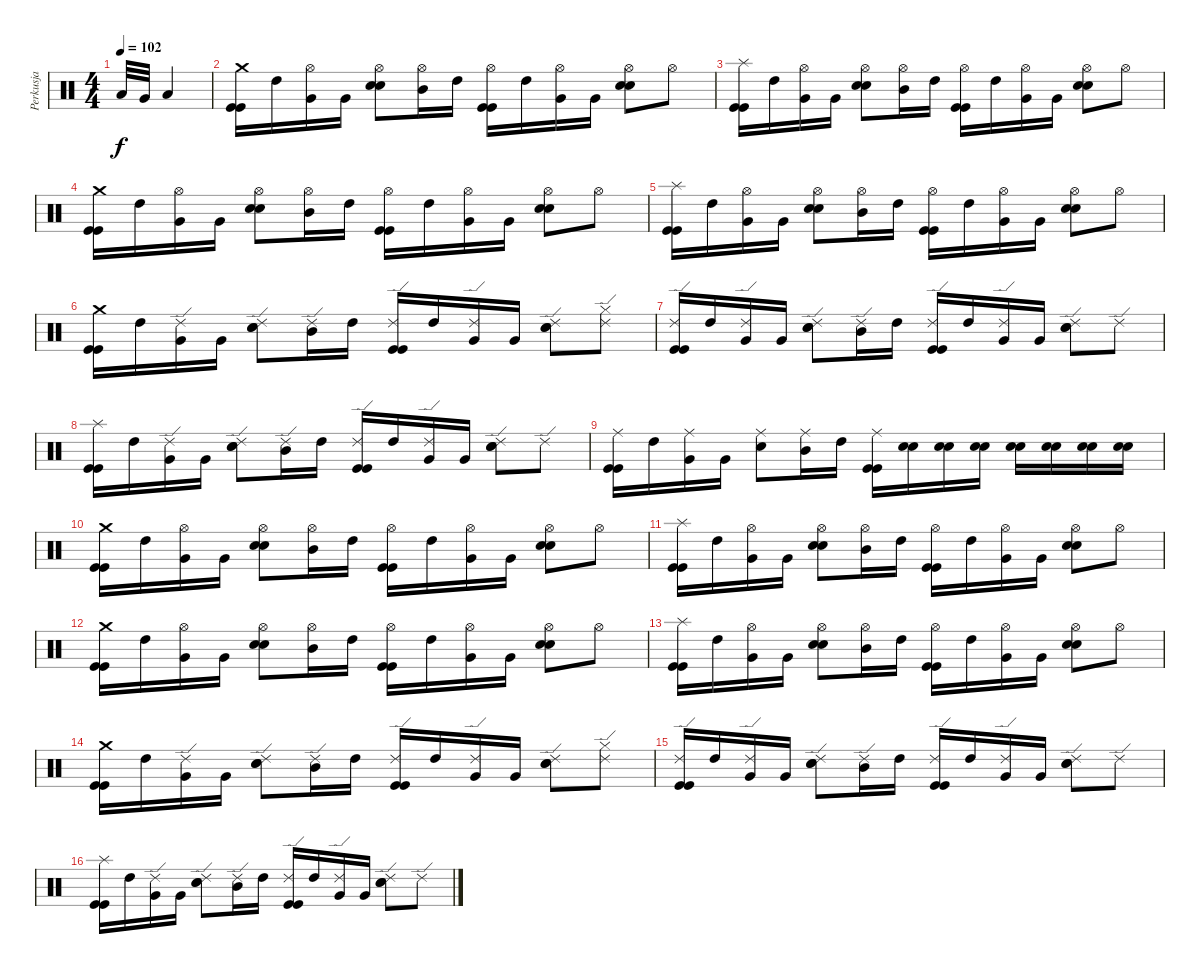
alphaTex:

\track ("Perkusja" "Perkusja") {instrument percussion}
\staff {score}
\articulation defaults
\ts (4 4)
\tempo 102
\clef neutral
\ks c "Low Tom (hit)".32{dy f} "Very Low Tom (hit)".32 "Low Floor Tom (hit)".4
|
("Kick (hit)" "Kick (hit)" "Crash medium (hit)").16 "High Tom (hit)".16 ("Very Low Tom (hit)" "Hi-Hat (open)").16 "Very Low Tom (hit)".16 ("Electric Snare (hit)" "Electric Snare (hit)" "Hi-Hat (open)").8 ("Mid Tom (hit)" "Hi-Hat (open)").16 "High Tom (hit)".16 ("Kick (hit)" "Kick (hit)" "Hi-Hat (open)").16 "High Tom (hit)".16 ("Very Low Tom (hit)" "Hi-Hat (open)").16 "Very Low Tom (hit)".16 ("Electric Snare (hit)" "Electric Snare (hit)" "Hi-Hat (open)").8 "Hi-Hat (open)".8 |
("Kick (hit)" "Kick (hit)" "Splash (hit)").16 "High Tom (hit)".16 ("Very Low Tom (hit)" "Hi-Hat (open)").16 "Very Low Tom (hit)".16 ("Electric Snare (hit)" "Electric Snare (hit)" "Hi-Hat (open)").8 ("Mid Tom (hit)" "Hi-Hat (open)").16 "High Tom (hit)".16 ("Kick (hit)" "Kick (hit)" "Hi-Hat (open)").16 "High Tom (hit)".16 ("Very Low Tom (hit)" "Hi-Hat (open)").16 "Very Low Tom (hit)".16 ("Electric Snare (hit)" "Electric Snare (hit)" "Hi-Hat (open)").8 "Hi-Hat (open)".8 |
("Kick (hit)" "Kick (hit)" "Crash medium (hit)").16 "High Tom (hit)".16 ("Very Low Tom (hit)" "Hi-Hat (open)").16 "Very Low Tom (hit)".16 ("Electric Snare (hit)" "Electric Snare (hit)" "Hi-Hat (open)").8 ("Mid Tom (hit)" "Hi-Hat (open)").16 "High Tom (hit)".16 ("Kick (hit)" "Kick (hit)" "Hi-Hat (open)").16 "High Tom (hit)".16 ("Very Low Tom (hit)" "Hi-Hat (open)").16 "Very Low Tom (hit)".16 ("Electric Snare (hit)" "Electric Snare (hit)" "Hi-Hat (open)").8 "Hi-Hat (open)".8 |
("Kick (hit)" "Kick (hit)" "Splash (hit)").16 "High Tom (hit)".16 ("Very Low Tom (hit)" "Hi-Hat (open)").16 "Very Low Tom (hit)".16 ("Electric Snare (hit)" "Electric Snare (hit)" "Hi-Hat (open)").8 ("Mid Tom (hit)" "Hi-Hat (open)").16 "High Tom (hit)".16 ("Kick (hit)" "Kick (hit)" "Hi-Hat (open)").16 "High Tom (hit)".16 ("Very Low Tom (hit)" "Hi-Hat (open)").16 "Very Low Tom (hit)".16 ("Electric Snare (hit)" "Electric Snare (hit)" "Hi-Hat (open)").8 "Hi-Hat (open)".8 |
("Kick (hit)" "Kick (hit)" "Crash medium (hit)").16 "High Tom (hit)".16 ("Very Low Tom (hit)" "Ride (edge) 2").16 "Very Low Tom (hit)".16 ("Electric Snare (hit)" "Electric Snare (hit)" "Ride (edge) 2").8 ("Mid Tom (hit)" "Ride (edge) 2").16 "High Tom (hit)".16 ("Kick (hit)" "Kick (hit)" "Ride (edge) 2").16 "High Tom (hit)".16 ("Very Low Tom (hit)" "Ride (edge) 2").16 "Very Low Tom (hit)".16 ("Electric Snare (hit)" "Electric Snare (hit)" "Ride (edge) 2").8 ("Hi-Hat (closed)" "Ride (edge) 2").8 |
("Kick (hit)" "Kick (hit)" "Ride (edge) 2").16 "High Tom (hit)".16 ("Very Low Tom (hit)" "Ride (edge) 2").16 "Very Low Tom (hit)".16 ("Electric Snare (hit)" "Electric Snare (hit)" "Ride (edge) 2").8 ("Mid Tom (hit)" "Ride (edge) 2").16 "High Tom (hit)".16 ("Kick (hit)" "Kick (hit)" "Ride (edge) 2").16 "High Tom (hit)".16 ("Very Low Tom (hit)" "Ride (edge) 2").16 "Very Low Tom (hit)".16 ("Electric Snare (hit)" "Electric Snare (hit)" "Ride (edge) 2").8 "Ride (edge) 2".8 |
("Kick (hit)" "Kick (hit)" "Splash (hit)").16 "High Tom (hit)".16 ("Very Low Tom (hit)" "Ride (edge) 2").16 "Very Low Tom (hit)".16 ("Electric Snare (hit)" "Electric Snare (hit)" "Ride (edge) 2").8 ("Mid Tom (hit)" "Ride (edge) 2").16 "High Tom (hit)".16 ("Kick (hit)" "Kick (hit)" "Ride (edge) 2").16 "High Tom (hit)".16 ("Very Low Tom (hit)" "Ride (edge) 2").16 "Very Low Tom (hit)".16 ("Electric Snare (hit)" "Electric Snare (hit)" "Ride (edge) 2").8 "Ride (edge) 2".8 |
("Kick (hit)" "Kick (hit)" "Ride (middle)").16 "High Tom (hit)".16 ("Very Low Tom (hit)" "Ride (middle)").16 "Very Low Tom (hit)".16 ("Electric Snare (hit)" "Ride (middle)").8 ("Mid Tom (hit)" "Ride (middle)").16 "High Tom (hit)".16 ("Kick (hit)" "Kick (hit)" "Ride (middle)").16 ("Electric Snare (hit)" "Electric Snare (hit)").16 ("Electric Snare (hit)" "Electric Snare (hit)").16 ("Electric Snare (hit)" "Electric Snare (hit)").16 ("Electric Snare (hit)" "Electric Snare (hit)").16 ("Electric Snare (hit)" "Electric Snare (hit)").16 ("Electric Snare (hit)" "Electric Snare (hit)").16 ("Electric Snare (hit)" "Electric Snare (hit)").16 |
("Kick (hit)" "Kick (hit)" "Crash medium (hit)").16 "High Tom (hit)".16 ("Very Low Tom (hit)" "Hi-Hat (open)").16 "Very Low Tom (hit)".16 ("Electric Snare (hit)" "Electric Snare (hit)" "Hi-Hat (open)").8 ("Mid Tom (hit)" "Hi-Hat (open)").16 "High Tom (hit)".16 ("Kick (hit)" "Kick (hit)" "Hi-Hat (open)").16 "High Tom (hit)".16 ("Very Low Tom (hit)" "Hi-Hat (open)").16 "Very Low Tom (hit)".16 ("Electric Snare (hit)" "Electric Snare (hit)" "Hi-Hat (open)").8 "Hi-Hat (open)".8 |
("Kick (hit)" "Kick (hit)" "Splash (hit)").16 "High Tom (hit)".16 ("Very Low Tom (hit)" "Hi-Hat (open)").16 "Very Low Tom (hit)".16 ("Electric Snare (hit)" "Electric Snare (hit)" "Hi-Hat (open)").8 ("Mid Tom (hit)" "Hi-Hat (open)").16 "High Tom (hit)".16 ("Kick (hit)" "Kick (hit)" "Hi-Hat (open)").16 "High Tom (hit)".16 ("Very Low Tom (hit)" "Hi-Hat (open)").16 "Very Low Tom (hit)".16 ("Electric Snare (hit)" "Electric Snare (hit)" "Hi-Hat (open)").8 "Hi-Hat (open)".8 |
("Kick (hit)" "Kick (hit)" "Crash medium (hit)").16 "High Tom (hit)".16 ("Very Low Tom (hit)" "Hi-Hat (open)").16 "Very Low Tom (hit)".16 ("Electric Snare (hit)" "Electric Snare (hit)" "Hi-Hat (open)").8 ("Mid Tom (hit)" "Hi-Hat (open)").16 "High Tom (hit)".16 ("Kick (hit)" "Kick (hit)" "Hi-Hat (open)").16 "High Tom (hit)".16 ("Very Low Tom (hit)" "Hi-Hat (open)").16 "Very Low Tom (hit)".16 ("Electric Snare (hit)" "Electric Snare (hit)" "Hi-Hat (open)").8 "Hi-Hat (open)".8 |
("Kick (hit)" "Kick (hit)" "Splash (hit)").16 "High Tom (hit)".16 ("Very Low Tom (hit)" "Hi-Hat (open)").16 "Very Low Tom (hit)".16 ("Electric Snare (hit)" "Electric Snare (hit)" "Hi-Hat (open)").8 ("Mid Tom (hit)" "Hi-Hat (open)").16 "High Tom (hit)".16 ("Kick (hit)" "Kick (hit)" "Hi-Hat (open)").16 "High Tom (hit)".16 ("Very Low Tom (hit)" "Hi-Hat (open)").16 "Very Low Tom (hit)".16 ("Electric Snare (hit)" "Electric Snare (hit)" "Hi-Hat (open)").8 "Hi-Hat (open)".8 |
("Kick (hit)" "Kick (hit)" "Crash medium (hit)").16 "High Tom (hit)".16 ("Very Low Tom (hit)" "Ride (edge) 2").16 "Very Low Tom (hit)".16 ("Electric Snare (hit)" "Electric Snare (hit)" "Ride (edge) 2").8 ("Mid Tom (hit)" "Ride (edge) 2").16 "High Tom (hit)".16 ("Kick (hit)" "Kick (hit)" "Ride (edge) 2").16 "High Tom (hit)".16 ("Very Low Tom (hit)" "Ride (edge) 2").16 "Very Low Tom (hit)".16 ("Electric Snare (hit)" "Electric Snare (hit)" "Ride (edge) 2").8 ("Hi-Hat (closed)" "Ride (edge) 2").8 |
("Kick (hit)" "Kick (hit)" "Ride (edge) 2").16 "High Tom (hit)".16 ("Very Low Tom (hit)" "Ride (edge) 2").16 "Very Low Tom (hit)".16 ("Electric Snare (hit)" "Electric Snare (hit)" "Ride (edge) 2").8 ("Mid Tom (hit)" "Ride (edge) 2").16 "High Tom (hit)".16 ("Kick (hit)" "Kick (hit)" "Ride (edge) 2").16 "High Tom (hit)".16 ("Very Low Tom (hit)" "Ride (edge) 2").16 "Very Low Tom (hit)".16 ("Electric Snare (hit)" "Electric Snare (hit)" "Ride (edge) 2").8 "Ride (edge) 2".8 |
("Kick (hit)" "Kick (hit)" "Splash (hit)").16 "High Tom (hit)".16 ("Very Low Tom (hit)" "Ride (edge) 2").16 "Very Low Tom (hit)".16 ("Electric Snare (hit)" "Electric Snare (hit)" "Ride (edge) 2").8 ("Mid Tom (hit)" "Ride (edge) 2").16 "High Tom (hit)".16 ("Kick (hit)" "Kick (hit)" "Ride (edge) 2").16 "High Tom (hit)".16 ("Very Low Tom (hit)" "Ride (edge) 2").16 "Very Low Tom (hit)".16 ("Electric Snare (hit)" "Electric Snare (hit)" "Ride (edge) 2").8 "Ride (edge) 2".8
